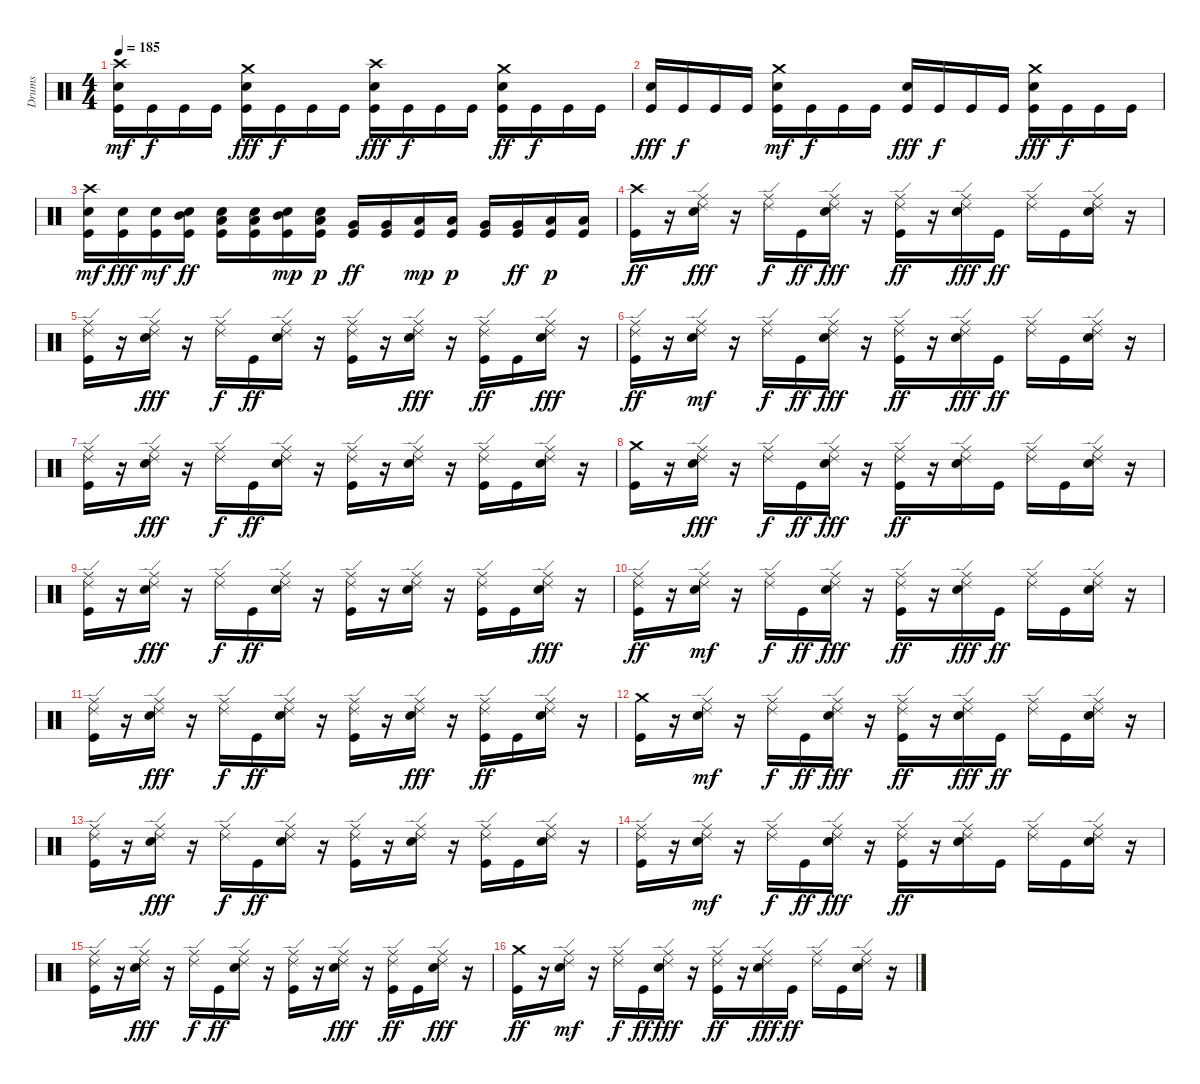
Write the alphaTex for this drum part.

\track ("Drums" "Drums") {instrument percussion}
\staff {score}
\articulation defaults
\ts (4 4)
\tempo 185
\clef neutral
\ks c
("Electric Snare (hit)" "Kick (hit)" "Crash high (hit)").16{dy mf} "Kick (hit)".16{dy f} "Kick (hit)".16 "Kick (hit)".16 ("Electric Snare (hit)" "Kick (hit)" "Crash medium (hit)").16{dy fff} "Kick (hit)".16{dy f} "Kick (hit)".16 "Kick (hit)".16 ("Electric Snare (hit)" "Kick (hit)" "Crash high (hit)").16{dy fff} "Kick (hit)".16{dy f} "Kick (hit)".16 "Kick (hit)".16 ("Electric Snare (hit)" "Kick (hit)" "Crash medium (hit)").16{dy ff} "Kick (hit)".16{dy f} "Kick (hit)".16 "Kick (hit)".16 |
("Electric Snare (hit)" "Kick (hit)").16{dy fff} "Kick (hit)".16{dy f} "Kick (hit)".16 "Kick (hit)".16 ("Electric Snare (hit)" "Kick (hit)" "Crash medium (hit)").16{dy mf} "Kick (hit)".16{dy f} "Kick (hit)".16 "Kick (hit)".16 ("Electric Snare (hit)" "Kick (hit)").16{dy fff} "Kick (hit)".16{dy f} "Kick (hit)".16 "Kick (hit)".16 ("Electric Snare (hit)" "Kick (hit)" "Crash medium (hit)").16{dy fff} "Kick (hit)".16{dy f} "Kick (hit)".16 "Kick (hit)".16 |
("Kick (hit)" "Electric Snare (hit)" "Crash high (hit)").16{dy mf} ("Electric Snare (hit)" "Kick (hit)").16{dy fff} ("Electric Snare (hit)" "Kick (hit)").16{dy mf} ("Kick (hit)" "Electric Snare (hit)" "Mid Tom (hit)").16{dy ff} ("Kick (hit)" "Electric Snare (hit)" "Low Tom (hit)").16 ("Kick (hit)" "Electric Snare (hit)" "Low Tom (hit)").16 ("Kick (hit)" "Electric Snare (hit)" "Mid Tom (hit)").16{dy mp} ("Kick (hit)" "Electric Snare (hit)" "Low Tom (hit)").16{dy p} ("Kick (hit)" "Very Low Tom (hit)").16{dy ff} ("Kick (hit)" "Very Low Tom (hit)").16 ("Kick (hit)" "Low Tom (hit)").16{dy mp} ("Kick (hit)" "Low Tom (hit)").16{dy p} ("Kick (hit)" "Very Low Tom (hit)").16 ("Kick (hit)" "Very Low Tom (hit)").16{dy ff} ("Kick (hit)" "Low Floor Tom (hit)").16{dy p} ("Kick (hit)" "Low Floor Tom (hit)").16 |
("Crash high (hit)" "Kick (hit)").16{dy ff} r.16 ("Ride (edge) 2" "Ride (middle)" "Electric Snare (hit)").16{dy fff} r.16 ("Ride (edge) 2" "Ride (middle)").16{dy f} "Kick (hit)".16{dy ff} ("Electric Snare (hit)" "Ride (edge) 2" "Ride (middle)").16{dy fff} r.16 ("Ride (middle)" "Ride (edge) 2" "Kick (hit)").16{dy ff} r.16 ("Ride (middle)" "Ride (edge) 2" "Electric Snare (hit)").16{dy fff} "Kick (hit)".16{dy ff} ("Ride (edge) 2" "Ride (middle)").16 "Kick (hit)".16 ("Ride (edge) 2" "Electric Snare (hit)" "Ride (middle)").16 r.16 |
("Kick (hit)" "Ride (middle)" "Ride (edge) 2").16 r.16 ("Electric Snare (hit)" "Ride (middle)" "Ride (edge) 2").16{dy fff} r.16 ("Ride (edge) 2" "Ride (middle)").16{dy f} "Kick (hit)".16{dy ff} ("Ride (middle)" "Electric Snare (hit)" "Ride (edge) 2").16 r.16 ("Ride (middle)" "Kick (hit)" "Ride (edge) 2").16 r.16 ("Ride (middle)" "Ride (edge) 2" "Electric Snare (hit)").16{dy fff} r.16 ("Ride (middle)" "Ride (edge) 2" "Kick (hit)").16{dy ff} "Kick (hit)".16 ("Ride (middle)" "Ride (edge) 2" "Electric Snare (hit)").16{dy fff} r.16 |
("Ride (middle)" "Ride (edge) 2" "Kick (hit)").16{dy ff} r.16 ("Electric Snare (hit)" "Ride (middle)" "Ride (edge) 2").16{dy mf} r.16 ("Ride (edge) 2" "Ride (middle)").16{dy f} "Kick (hit)".16{dy ff} ("Ride (middle)" "Ride (edge) 2" "Electric Snare (hit)").16{dy fff} r.16 ("Kick (hit)" "Ride (edge) 2" "Ride (middle)").16{dy ff} r.16 ("Ride (middle)" "Ride (edge) 2" "Electric Snare (hit)").16{dy fff} "Kick (hit)".16{dy ff} ("Ride (middle)" "Ride (edge) 2").16 "Kick (hit)".16 ("Ride (middle)" "Electric Snare (hit)" "Ride (edge) 2").16 r.16 |
("Ride (edge) 2" "Ride (middle)" "Kick (hit)").16 r.16 ("Electric Snare (hit)" "Ride (middle)" "Ride (edge) 2").16{dy fff} r.16 ("Ride (middle)" "Ride (edge) 2").16{dy f} "Kick (hit)".16{dy ff} ("Ride (edge) 2" "Electric Snare (hit)" "Ride (middle)").16 r.16 ("Ride (middle)" "Kick (hit)" "Ride (edge) 2").16 r.16 ("Electric Snare (hit)" "Ride (edge) 2" "Ride (middle)").16 r.16 ("Kick (hit)" "Ride (edge) 2" "Ride (middle)").16 "Kick (hit)".16 ("Electric Snare (hit)" "Ride (edge) 2" "Ride (middle)").16 r.16 |
("Crash medium (hit)" "Kick (hit)").16 r.16 ("Ride (edge) 2" "Ride (middle)" "Electric Snare (hit)").16{dy fff} r.16 ("Ride (middle)" "Ride (edge) 2").16{dy f} "Kick (hit)".16{dy ff} ("Ride (middle)" "Ride (edge) 2" "Electric Snare (hit)").16{dy fff} r.16 ("Ride (middle)" "Ride (edge) 2" "Kick (hit)").16{dy ff} r.16 ("Electric Snare (hit)" "Ride (edge) 2" "Ride (middle)").16 "Kick (hit)".16 ("Ride (middle)" "Ride (edge) 2").16 "Kick (hit)".16 ("Ride (edge) 2" "Electric Snare (hit)" "Ride (middle)").16 r.16 |
("Kick (hit)" "Ride (middle)" "Ride (edge) 2").16 r.16 ("Ride (edge) 2" "Ride (middle)" "Electric Snare (hit)").16{dy fff} r.16 ("Ride (middle)" "Ride (edge) 2").16{dy f} "Kick (hit)".16{dy ff} ("Ride (middle)" "Electric Snare (hit)" "Ride (edge) 2").16 r.16 ("Ride (edge) 2" "Kick (hit)" "Ride (middle)").16 r.16 ("Electric Snare (hit)" "Ride (edge) 2" "Ride (middle)").16 r.16 ("Ride (middle)" "Ride (edge) 2" "Kick (hit)").16 "Kick (hit)".16 ("Ride (middle)" "Ride (edge) 2" "Electric Snare (hit)").16{dy fff} r.16 |
("Kick (hit)" "Ride (edge) 2" "Ride (middle)").16{dy ff} r.16 ("Electric Snare (hit)" "Ride (middle)" "Ride (edge) 2").16{dy mf} r.16 ("Ride (edge) 2" "Ride (middle)").16{dy f} "Kick (hit)".16{dy ff} ("Electric Snare (hit)" "Ride (edge) 2" "Ride (middle)").16{dy fff} r.16 ("Ride (middle)" "Ride (edge) 2" "Kick (hit)").16{dy ff} r.16 ("Ride (middle)" "Ride (edge) 2" "Electric Snare (hit)").16{dy fff} "Kick (hit)".16{dy ff} ("Ride (edge) 2" "Ride (middle)").16 "Kick (hit)".16 ("Ride (edge) 2" "Electric Snare (hit)" "Ride (middle)").16 r.16 |
("Ride (edge) 2" "Ride (middle)" "Kick (hit)").16 r.16 ("Electric Snare (hit)" "Ride (middle)" "Ride (edge) 2").16{dy fff} r.16 ("Ride (edge) 2" "Ride (middle)").16{dy f} "Kick (hit)".16{dy ff} ("Ride (middle)" "Electric Snare (hit)" "Ride (edge) 2").16 r.16 ("Ride (middle)" "Kick (hit)" "Ride (edge) 2").16 r.16 ("Ride (middle)" "Ride (edge) 2" "Electric Snare (hit)").16{dy fff} r.16 ("Ride (middle)" "Ride (edge) 2" "Kick (hit)").16{dy ff} "Kick (hit)".16 ("Electric Snare (hit)" "Ride (edge) 2" "Ride (middle)").16 r.16 |
("Crash medium (hit)" "Kick (hit)").16 r.16 ("Electric Snare (hit)" "Ride (middle)" "Ride (edge) 2").16{dy mf} r.16 ("Ride (middle)" "Ride (edge) 2").16{dy f} "Kick (hit)".16{dy ff} ("Ride (middle)" "Ride (edge) 2" "Electric Snare (hit)").16{dy fff} r.16 ("Kick (hit)" "Ride (edge) 2" "Ride (middle)").16{dy ff} r.16 ("Ride (middle)" "Ride (edge) 2" "Electric Snare (hit)").16{dy fff} "Kick (hit)".16{dy ff} ("Ride (middle)" "Ride (edge) 2").16 "Kick (hit)".16 ("Ride (middle)" "Electric Snare (hit)" "Ride (edge) 2").16 r.16 |
("Ride (edge) 2" "Ride (middle)" "Kick (hit)").16 r.16 ("Ride (edge) 2" "Ride (middle)" "Electric Snare (hit)").16{dy fff} r.16 ("Ride (middle)" "Ride (edge) 2").16{dy f} "Kick (hit)".16{dy ff} ("Ride (edge) 2" "Electric Snare (hit)" "Ride (middle)").16 r.16 ("Ride (middle)" "Kick (hit)" "Ride (edge) 2").16 r.16 ("Electric Snare (hit)" "Ride (edge) 2" "Ride (middle)").16 r.16 ("Kick (hit)" "Ride (edge) 2" "Ride (middle)").16 "Kick (hit)".16 ("Electric Snare (hit)" "Ride (edge) 2" "Ride (middle)").16 r.16 |
("Ride (middle)" "Ride (edge) 2" "Kick (hit)").16 r.16 ("Electric Snare (hit)" "Ride (middle)" "Ride (edge) 2").16{dy mf} r.16 ("Ride (middle)" "Ride (edge) 2").16{dy f} "Kick (hit)".16{dy ff} ("Ride (middle)" "Ride (edge) 2" "Electric Snare (hit)").16{dy fff} r.16 ("Kick (hit)" "Ride (edge) 2" "Ride (middle)").16{dy ff} r.16 ("Electric Snare (hit)" "Ride (edge) 2" "Ride (middle)").16 "Kick (hit)".16 ("Ride (edge) 2" "Ride (middle)").16 "Kick (hit)".16 ("Ride (middle)" "Electric Snare (hit)" "Ride (edge) 2").16 r.16 |
("Kick (hit)" "Ride (middle)" "Ride (edge) 2").16 r.16 ("Ride (edge) 2" "Ride (middle)" "Electric Snare (hit)").16{dy fff} r.16 ("Ride (middle)" "Ride (edge) 2").16{dy f} "Kick (hit)".16{dy ff} ("Ride (edge) 2" "Electric Snare (hit)" "Ride (middle)").16 r.16 ("Ride (edge) 2" "Kick (hit)" "Ride (middle)").16 r.16 ("Ride (middle)" "Ride (edge) 2" "Electric Snare (hit)").16{dy fff} r.16 ("Kick (hit)" "Ride (edge) 2" "Ride (middle)").16{dy ff} "Kick (hit)".16 ("Ride (middle)" "Ride (edge) 2" "Electric Snare (hit)").16{dy fff} r.16 |
("Crash medium (hit)" "Kick (hit)").16{dy ff} r.16 ("Electric Snare (hit)" "Ride (middle)" "Ride (edge) 2").16{dy mf} r.16 ("Ride (edge) 2" "Ride (middle)").16{dy f} "Kick (hit)".16{dy ff} ("Electric Snare (hit)" "Ride (edge) 2" "Ride (middle)").16{dy fff} r.16 ("Kick (hit)" "Ride (edge) 2" "Ride (middle)").16{dy ff} r.16 ("Ride (middle)" "Ride (edge) 2" "Electric Snare (hit)").16{dy fff} "Kick (hit)".16{dy ff} ("Ride (edge) 2" "Ride (middle)").16 "Kick (hit)".16 ("Ride (edge) 2" "Electric Snare (hit)" "Ride (middle)").16 r.16
